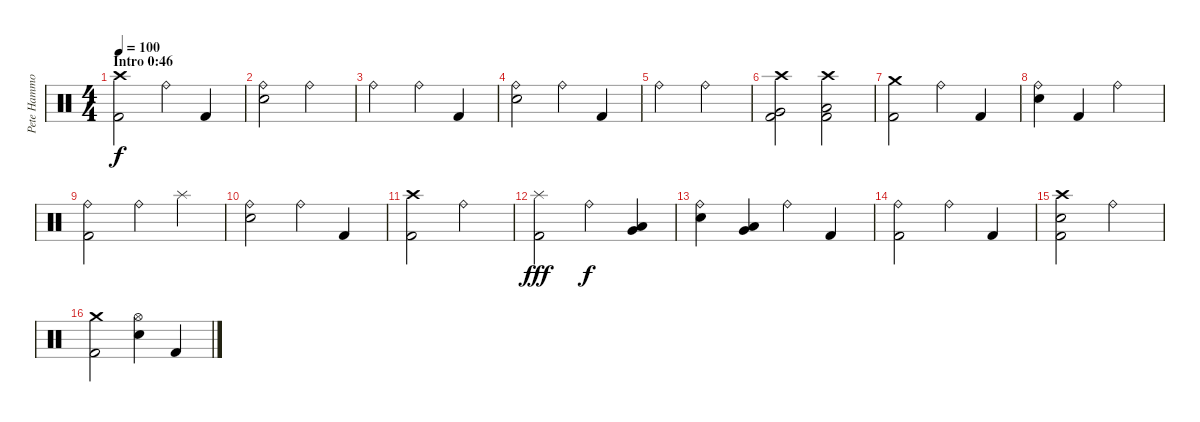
\track ("Pete Hammoura" "Pete Hammo") {instrument percussion}
\staff {score}
\articulation defaults
\ts (4 4)
\section ("" "Intro 0:46")
\tempo 100
\clef neutral
\ks c
("Crash high (hit)" "Kick (hit) 2").2{dy f} "Ride (bell)".4 "Kick (hit) 2".4 |
("Ride (bell)" "Electric Snare (hit)").2 "Ride (bell)".2 |
"Ride (bell)".2 "Ride (bell)".4 "Kick (hit) 2".4 |
("Ride (bell)" "Electric Snare (hit)").2 "Ride (bell)".4 "Kick (hit) 2".4 |
"Ride (bell)".2 "Ride (bell)".2 |
("Crash high (hit)" "Very Low Tom (hit)" "Kick (hit) 2").2 ("Crash high (hit)" "Low Floor Tom (hit)" "Kick (hit) 2").2 |
("Crash medium (hit)" "Kick (hit) 2").2 "Ride (bell)".4 "Kick (hit) 2".4 |
("Ride (bell)" "Electric Snare (hit)").4 "Kick (hit) 2".4 "Ride (bell)".2 |
("Ride (bell)" "Kick (hit) 2").2 "Ride (bell)".4 "Splash (hit)".4 |
("Ride (bell)" "Electric Snare (hit)").2 "Ride (bell)".4 "Kick (hit) 2".4 |
("Crash high (hit)" "Kick (hit) 2").2 "Ride (bell)".2 |
("Splash (hit)" "Kick (hit) 2").2{dy fff} "Ride (bell)".4{dy f} ("Low Tom (hit)" "Very Low Tom (hit)").4 |
("Ride (bell)" "Electric Snare (hit)").4 ("Very Low Tom (hit)" "Low Floor Tom (hit)").4 "Ride (bell)".4 "Kick (hit) 2".4 |
("Ride (bell)" "Kick (hit) 2").2 "Ride (bell)".4 "Kick (hit) 2".4 |
("Crash high (hit)" "Electric Snare (hit)" "Kick (hit) 2").2 "Ride (bell)".2 |
("Crash medium (hit)" "Kick (hit) 2").2 ("Hi-Hat (open)" "Electric Snare (hit)").4 "Kick (hit) 2".4
